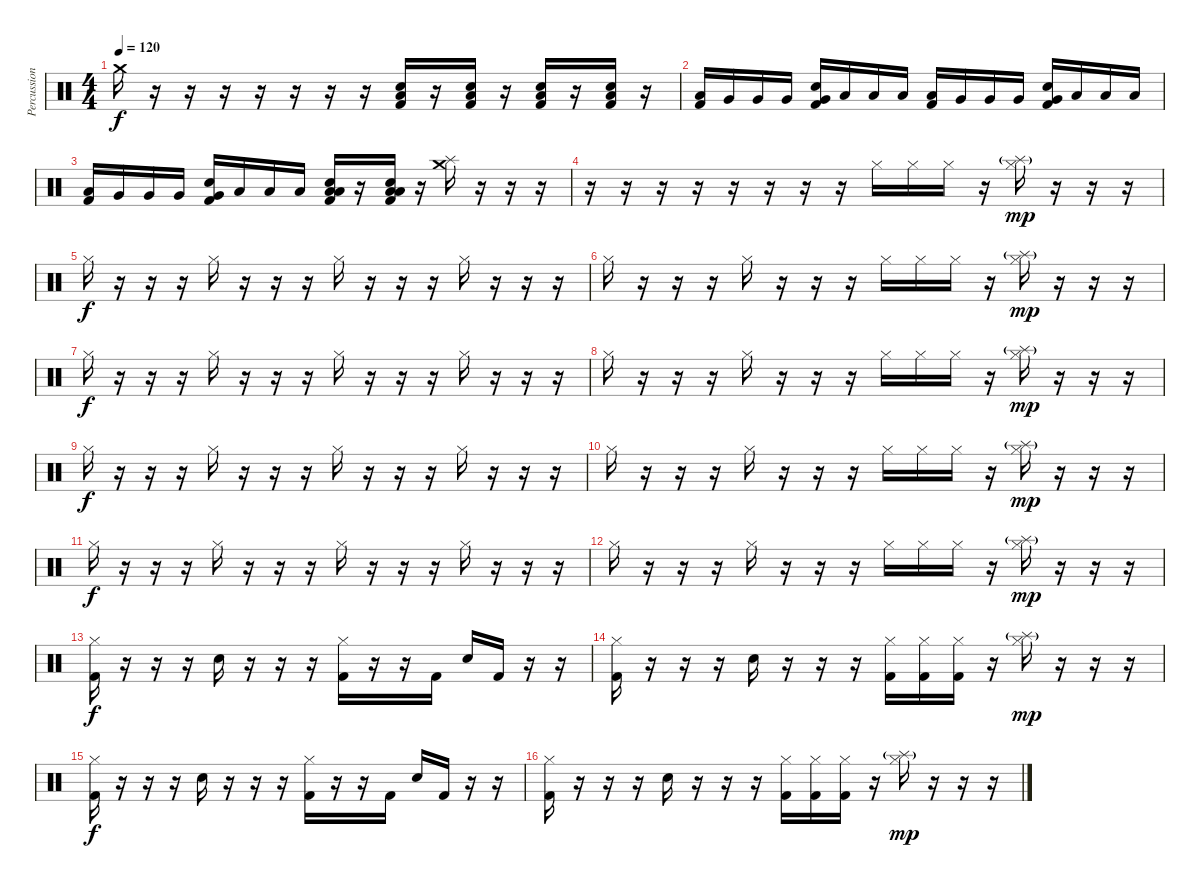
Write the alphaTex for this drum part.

\track ("Percussion" "Percussion") {instrument percussion}
\staff {score}
\articulation defaults
\ts (4 4)
\tempo 120
\clef neutral
\ks c "Crash medium (hit)".16{dy f}
r.16 r.16 r.16 r.16 r.16 r.16 r.16 ("Snare (hit) 2" "Low Tom (hit)" "Kick (hit) 2").16 r.16 ("Snare (hit) 2" "Low Tom (hit)" "Kick (hit) 2").16 r.16 ("Snare (hit) 2" "Low Tom (hit)" "Kick (hit) 2").16 r.16 ("Snare (hit) 2" "Low Tom (hit)" "Kick (hit) 2").16 r.16 |
("Low Tom (hit)" "Kick (hit) 2").16 "Very Low Tom (hit)".16 "Very Low Tom (hit)".16 "Very Low Tom (hit)".16 ("Snare (hit) 2" "Very Low Tom (hit)" "Kick (hit) 2").16 "Low Floor Tom (hit)".16 "Low Floor Tom (hit)".16 "Low Floor Tom (hit)".16 ("Low Tom (hit)" "Kick (hit) 2").16 "Very Low Tom (hit)".16 "Very Low Tom (hit)".16 "Very Low Tom (hit)".16 ("Snare (hit) 2" "Very Low Tom (hit)" "Kick (hit) 2").16 "Low Floor Tom (hit)".16 "Low Floor Tom (hit)".16 "Low Floor Tom (hit)".16 |
("Low Tom (hit)" "Kick (hit) 2").16 "Very Low Tom (hit)".16 "Very Low Tom (hit)".16 "Very Low Tom (hit)".16 ("Snare (hit) 2" "Very Low Tom (hit)" "Kick (hit) 2").16 "Low Floor Tom (hit)".16 "Low Floor Tom (hit)".16 "Low Floor Tom (hit)".16 ("Low Tom (hit)" "Low Tom (hit)" "Snare (hit) 2" "Kick (hit) 2").16 r.16 ("Low Tom (hit)" "Low Tom (hit)" "Snare (hit) 2" "Kick (hit) 2").16 r.16 ("Splash (hit)" "Crash medium (hit)").16 r.16 r.16 r.16 |
r.16 r.16 r.16 r.16 r.16 r.16 r.16 r.16 "Hi-Hat (closed)".16 "Hi-Hat (closed)".16 "Hi-Hat (closed)".16 r.16 ("Splash (hit)"{g} "Hi-Hat (closed)").16{dy mp} r.16 r.16 r.16 |
"Hi-Hat (closed)".16{dy f} r.16 r.16 r.16 "Hi-Hat (closed)".16 r.16 r.16 r.16 "Hi-Hat (closed)".16 r.16 r.16 r.16 "Hi-Hat (closed)".16 r.16 r.16 r.16 |
"Hi-Hat (closed)".16 r.16 r.16 r.16 "Hi-Hat (closed)".16 r.16 r.16 r.16 "Hi-Hat (closed)".16 "Hi-Hat (closed)".16 "Hi-Hat (closed)".16 r.16 ("Splash (hit)"{g} "Hi-Hat (closed)").16{dy mp} r.16 r.16 r.16 |
"Hi-Hat (closed)".16{dy f} r.16 r.16 r.16 "Hi-Hat (closed)".16 r.16 r.16 r.16 "Hi-Hat (closed)".16 r.16 r.16 r.16 "Hi-Hat (closed)".16 r.16 r.16 r.16 |
"Hi-Hat (closed)".16 r.16 r.16 r.16 "Hi-Hat (closed)".16 r.16 r.16 r.16 "Hi-Hat (closed)".16 "Hi-Hat (closed)".16 "Hi-Hat (closed)".16 r.16 ("Splash (hit)"{g} "Hi-Hat (closed)").16{dy mp} r.16 r.16 r.16 |
"Hi-Hat (closed)".16{dy f} r.16 r.16 r.16 "Hi-Hat (closed)".16 r.16 r.16 r.16 "Hi-Hat (closed)".16 r.16 r.16 r.16 "Hi-Hat (closed)".16 r.16 r.16 r.16 |
"Hi-Hat (closed)".16 r.16 r.16 r.16 "Hi-Hat (closed)".16 r.16 r.16 r.16 "Hi-Hat (closed)".16 "Hi-Hat (closed)".16 "Hi-Hat (closed)".16 r.16 ("Splash (hit)"{g} "Hi-Hat (closed)").16{dy mp} r.16 r.16 r.16 |
"Hi-Hat (closed)".16{dy f} r.16 r.16 r.16 "Hi-Hat (closed)".16 r.16 r.16 r.16 "Hi-Hat (closed)".16 r.16 r.16 r.16 "Hi-Hat (closed)".16 r.16 r.16 r.16 |
"Hi-Hat (closed)".16 r.16 r.16 r.16 "Hi-Hat (closed)".16 r.16 r.16 r.16 "Hi-Hat (closed)".16 "Hi-Hat (closed)".16 "Hi-Hat (closed)".16 r.16 ("Splash (hit)"{g} "Hi-Hat (closed)").16{dy mp} r.16 r.16 r.16 |
("Hi-Hat (closed)" "Kick (hit) 2").16{dy f} r.16 r.16 r.16 "Snare (hit) 2".16 r.16 r.16 r.16 ("Hi-Hat (closed)" "Kick (hit) 2").16 r.16 r.16 "Kick (hit) 2".16 "Snare (hit) 2".16 "Kick (hit) 2".16 r.16 r.16 |
("Hi-Hat (closed)" "Kick (hit) 2").16 r.16 r.16 r.16 "Snare (hit) 2".16 r.16 r.16 r.16 ("Hi-Hat (closed)" "Kick (hit) 2").16 ("Hi-Hat (closed)" "Kick (hit) 2").16 ("Hi-Hat (closed)" "Kick (hit) 2").16 r.16 ("Splash (hit)"{g} "Hi-Hat (closed)").16{dy mp} r.16 r.16 r.16 |
("Hi-Hat (closed)" "Kick (hit) 2").16{dy f} r.16 r.16 r.16 "Snare (hit) 2".16 r.16 r.16 r.16 ("Hi-Hat (closed)" "Kick (hit) 2").16 r.16 r.16 "Kick (hit) 2".16 "Snare (hit) 2".16 "Kick (hit) 2".16 r.16 r.16 |
("Hi-Hat (closed)" "Kick (hit) 2").16 r.16 r.16 r.16 "Snare (hit) 2".16 r.16 r.16 r.16 ("Hi-Hat (closed)" "Kick (hit) 2").16 ("Hi-Hat (closed)" "Kick (hit) 2").16 ("Hi-Hat (closed)" "Kick (hit) 2").16 r.16 ("Splash (hit)"{g} "Hi-Hat (closed)").16{dy mp} r.16 r.16 r.16
